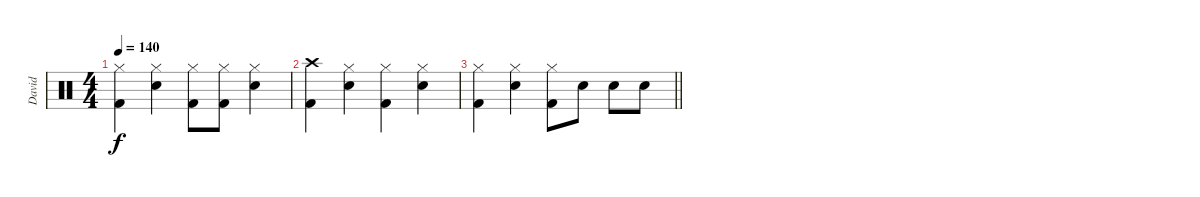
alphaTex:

\track ("David" "David") {instrument percussion}
\staff {score}
\articulation defaults
\ts (4 4)
\tempo 140
\clef neutral
\ks c
("Hi-Hat (closed)" "Kick (hit) 2").4{dy f} ("Hi-Hat (closed)" "Snare (hit) 2").4 ("Hi-Hat (closed)" "Kick (hit) 2").8 ("Hi-Hat (closed)" "Kick (hit) 2").8 ("Hi-Hat (closed)" "Snare (hit) 2").4 |
("Crash high (hit)" "Kick (hit) 2").4 ("Hi-Hat (closed)" "Snare (hit) 2").4 ("Hi-Hat (closed)" "Kick (hit) 2").4 ("Hi-Hat (closed)" "Snare (hit) 2").4 |
\barLineRight lightlight
("Hi-Hat (closed)" "Kick (hit) 2").4 ("Hi-Hat (closed)" "Snare (hit) 2").4 ("Hi-Hat (closed)" "Kick (hit) 2").8 "Snare (hit) 2".8 "Snare (hit) 2".8 "Snare (hit) 2".8
